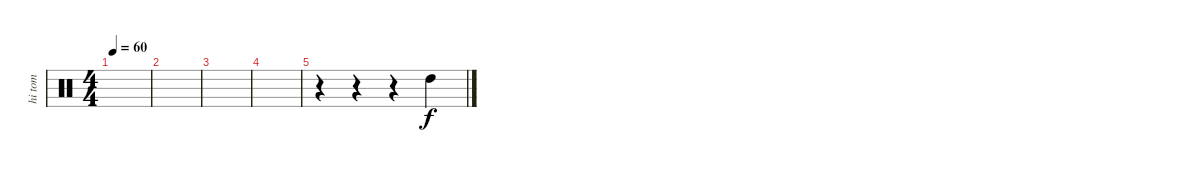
\track ("hi tom" "hi tom") {instrument percussion}
\staff {score}
\articulation defaults
\ts (4 4)
\tempo 60
\clef neutral
\ks c
|
|
|
|
r.4 r.4 r.4 "High Tom (hit)".4
